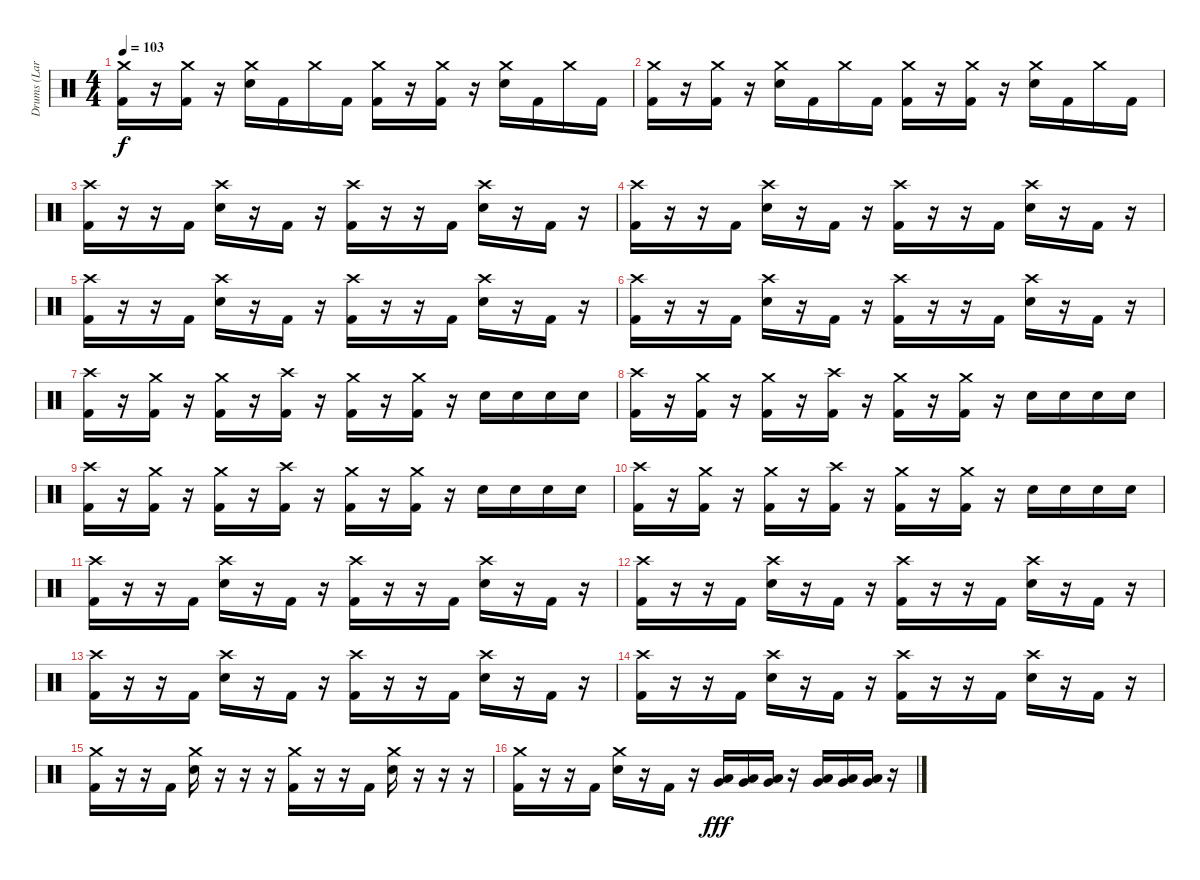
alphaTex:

\track ("Drums (Lars)" "Drums (Lar") {instrument percussion}
\staff {score}
\articulation defaults
\ts (4 4)
\tempo 103
\clef neutral
\ks c
("Crash medium (hit)" "Kick (hit) 2").16{dy f} r.16 ("Crash medium (hit)" "Kick (hit) 2").16 r.16 ("Crash medium (hit)" "Snare (hit) 2").16 "Kick (hit) 2".16 "Crash medium (hit)".16 "Kick (hit) 2".16 ("Crash medium (hit)" "Kick (hit) 2").16 r.16 ("Crash medium (hit)" "Kick (hit) 2").16 r.16 ("Crash medium (hit)" "Snare (hit) 2").16 "Kick (hit) 2".16 "Crash medium (hit)".16 "Kick (hit) 2".16 |
("Crash medium (hit)" "Kick (hit) 2").16 r.16 ("Crash medium (hit)" "Kick (hit) 2").16 r.16 ("Crash medium (hit)" "Snare (hit) 2").16 "Kick (hit) 2".16 "Crash medium (hit)".16 "Kick (hit) 2".16 ("Crash medium (hit)" "Kick (hit) 2").16 r.16 ("Crash medium (hit)" "Kick (hit) 2").16 r.16 ("Crash medium (hit)" "Snare (hit) 2").16 "Kick (hit) 2".16 "Crash medium (hit)".16 "Kick (hit) 2".16 |
("Crash high (hit)" "Kick (hit) 2").16 r.16 r.16 "Kick (hit) 2".16 ("Crash high (hit)" "Snare (hit) 2").16 r.16 "Kick (hit) 2".16 r.16 ("Crash high (hit)" "Kick (hit) 2").16 r.16 r.16 "Kick (hit) 2".16 ("Crash high (hit)" "Snare (hit) 2").16 r.16 "Kick (hit) 2".16 r.16 |
("Crash high (hit)" "Kick (hit) 2").16 r.16 r.16 "Kick (hit) 2".16 ("Crash high (hit)" "Snare (hit) 2").16 r.16 "Kick (hit) 2".16 r.16 ("Crash high (hit)" "Kick (hit) 2").16 r.16 r.16 "Kick (hit) 2".16 ("Crash high (hit)" "Snare (hit) 2").16 r.16 "Kick (hit) 2".16 r.16 |
("Crash high (hit)" "Kick (hit) 2").16 r.16 r.16 "Kick (hit) 2".16 ("Crash high (hit)" "Snare (hit) 2").16 r.16 "Kick (hit) 2".16 r.16 ("Crash high (hit)" "Kick (hit) 2").16 r.16 r.16 "Kick (hit) 2".16 ("Crash high (hit)" "Snare (hit) 2").16 r.16 "Kick (hit) 2".16 r.16 |
("Crash high (hit)" "Kick (hit) 2").16 r.16 r.16 "Kick (hit) 2".16 ("Crash high (hit)" "Snare (hit) 2").16 r.16 "Kick (hit) 2".16 r.16 ("Crash high (hit)" "Kick (hit) 2").16 r.16 r.16 "Kick (hit) 2".16 ("Crash high (hit)" "Snare (hit) 2").16 r.16 "Kick (hit) 2".16 r.16 |
("Crash high (hit)" "Kick (hit) 2").16 r.16 ("Crash medium (hit)" "Kick (hit) 2").16 r.16 ("Crash medium (hit)" "Kick (hit) 2").16 r.16 ("Crash high (hit)" "Kick (hit) 2").16 r.16 ("Crash medium (hit)" "Kick (hit) 2").16 r.16 ("Crash medium (hit)" "Kick (hit) 2").16 r.16 "Snare (hit) 2".16 "Snare (hit) 2".16 "Snare (hit) 2".16 "Snare (hit) 2".16 |
("Crash high (hit)" "Kick (hit) 2").16 r.16 ("Crash medium (hit)" "Kick (hit) 2").16 r.16 ("Crash medium (hit)" "Kick (hit) 2").16 r.16 ("Crash high (hit)" "Kick (hit) 2").16 r.16 ("Crash medium (hit)" "Kick (hit) 2").16 r.16 ("Crash medium (hit)" "Kick (hit) 2").16 r.16 "Snare (hit) 2".16 "Snare (hit) 2".16 "Snare (hit) 2".16 "Snare (hit) 2".16 |
("Crash high (hit)" "Kick (hit) 2").16 r.16 ("Crash medium (hit)" "Kick (hit) 2").16 r.16 ("Crash medium (hit)" "Kick (hit) 2").16 r.16 ("Crash high (hit)" "Kick (hit) 2").16 r.16 ("Crash medium (hit)" "Kick (hit) 2").16 r.16 ("Crash medium (hit)" "Kick (hit) 2").16 r.16 "Snare (hit) 2".16 "Snare (hit) 2".16 "Snare (hit) 2".16 "Snare (hit) 2".16 |
("Crash high (hit)" "Kick (hit) 2").16 r.16 ("Crash medium (hit)" "Kick (hit) 2").16 r.16 ("Crash medium (hit)" "Kick (hit) 2").16 r.16 ("Crash high (hit)" "Kick (hit) 2").16 r.16 ("Crash medium (hit)" "Kick (hit) 2").16 r.16 ("Crash medium (hit)" "Kick (hit) 2").16 r.16 "Snare (hit) 2".16 "Snare (hit) 2".16 "Snare (hit) 2".16 "Snare (hit) 2".16 |
("Crash high (hit)" "Kick (hit) 2").16 r.16 r.16 "Kick (hit) 2".16 ("Crash high (hit)" "Snare (hit) 2").16 r.16 "Kick (hit) 2".16 r.16 ("Crash high (hit)" "Kick (hit) 2").16 r.16 r.16 "Kick (hit) 2".16 ("Crash high (hit)" "Snare (hit) 2").16 r.16 "Kick (hit) 2".16 r.16 |
("Crash high (hit)" "Kick (hit) 2").16 r.16 r.16 "Kick (hit) 2".16 ("Crash high (hit)" "Snare (hit) 2").16 r.16 "Kick (hit) 2".16 r.16 ("Crash high (hit)" "Kick (hit) 2").16 r.16 r.16 "Kick (hit) 2".16 ("Crash high (hit)" "Snare (hit) 2").16 r.16 "Kick (hit) 2".16 r.16 |
("Crash high (hit)" "Kick (hit) 2").16 r.16 r.16 "Kick (hit) 2".16 ("Crash high (hit)" "Snare (hit) 2").16 r.16 "Kick (hit) 2".16 r.16 ("Crash high (hit)" "Kick (hit) 2").16 r.16 r.16 "Kick (hit) 2".16 ("Crash high (hit)" "Snare (hit) 2").16 r.16 "Kick (hit) 2".16 r.16 |
("Crash high (hit)" "Kick (hit) 2").16 r.16 r.16 "Kick (hit) 2".16 ("Crash high (hit)" "Snare (hit) 2").16 r.16 "Kick (hit) 2".16 r.16 ("Crash high (hit)" "Kick (hit) 2").16 r.16 r.16 "Kick (hit) 2".16 ("Crash high (hit)" "Snare (hit) 2").16 r.16 "Kick (hit) 2".16 r.16 |
("Crash medium (hit)" "Kick (hit) 2").16 r.16 r.16 "Kick (hit) 2".16 ("Crash medium (hit)" "Snare (hit) 2").16 r.16 r.16 r.16 ("Crash medium (hit)" "Kick (hit) 2").16 r.16 r.16 "Kick (hit) 2".16 ("Crash medium (hit)" "Snare (hit) 2").16 r.16 r.16 r.16 |
("Crash medium (hit)" "Kick (hit) 2").16 r.16 r.16 "Kick (hit) 2".16 ("Crash medium (hit)" "Snare (hit) 2").16 r.16 "Kick (hit) 2".16 r.16 ("Very Low Tom (hit)" "Low Tom (hit)").16{dy fff} ("Very Low Tom (hit)" "Low Tom (hit)").16 ("Very Low Tom (hit)" "Low Tom (hit)").16 r.16 ("Very Low Tom (hit)" "Low Tom (hit)").16 ("Very Low Tom (hit)" "Low Tom (hit)").16 ("Very Low Tom (hit)" "Low Tom (hit)").16 r.16
